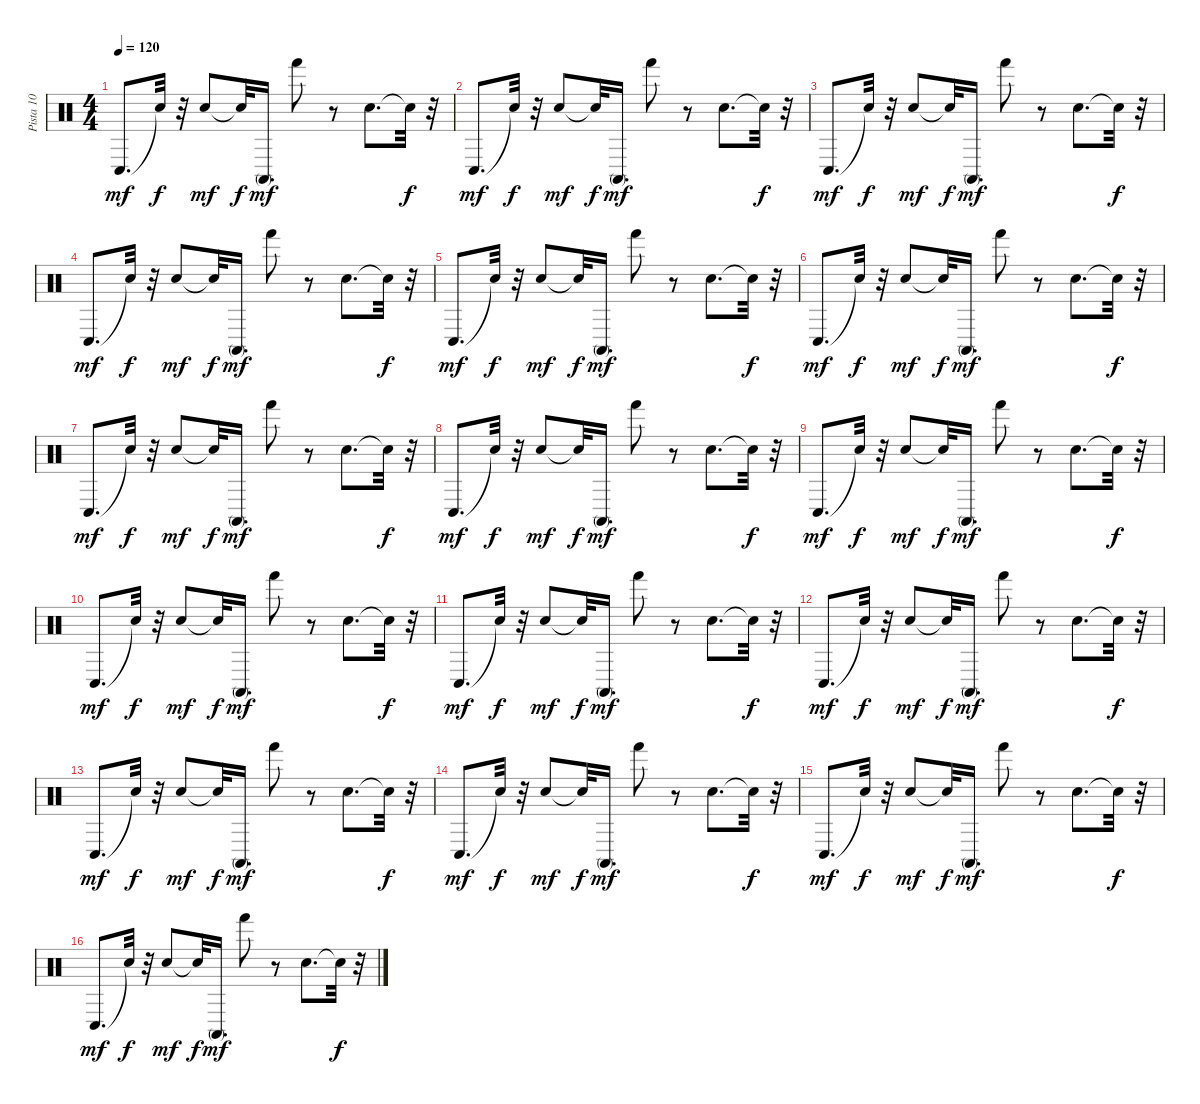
\track ("Pista 10" "Pista 10") {instrument percussion}
\staff {score}
\articulation defaults
\ts (4 4)
\tempo 120
\clef neutral
\ks c "Conga low (hit)".8{d dy mf} "Snare (hit)"{t}.32{dy f}
r.32 "Hand Clap (hit)".8{dy mf} "Snare (hit)"{t}.32{dy f} "Conga high (mute)".16{d dy mf} "Hand (hit)".8 r.8 "Hand Clap (hit)".8{d} "Snare (hit)"{t}.32{dy f} r.32 |
"Conga low (hit)".8{d dy mf} "Snare (hit)"{t}.32{dy f} r.32 "Hand Clap (hit)".8{dy mf} "Snare (hit)"{t}.32{dy f} "Conga high (mute)".16{d dy mf} "Hand (hit)".8 r.8 "Hand Clap (hit)".8{d} "Snare (hit)"{t}.32{dy f} r.32 |
"Conga low (hit)".8{d dy mf} "Snare (hit)"{t}.32{dy f} r.32 "Hand Clap (hit)".8{dy mf} "Snare (hit)"{t}.32{dy f} "Conga high (mute)".16{d dy mf} "Hand (hit)".8 r.8 "Hand Clap (hit)".8{d} "Snare (hit)"{t}.32{dy f} r.32 |
"Conga low (hit)".8{d dy mf} "Snare (hit)"{t}.32{dy f} r.32 "Hand Clap (hit)".8{dy mf} "Snare (hit)"{t}.32{dy f} "Conga high (mute)".16{d dy mf} "Hand (hit)".8 r.8 "Hand Clap (hit)".8{d} "Snare (hit)"{t}.32{dy f} r.32 |
"Conga low (hit)".8{d dy mf} "Snare (hit)"{t}.32{dy f} r.32 "Hand Clap (hit)".8{dy mf} "Snare (hit)"{t}.32{dy f} "Conga high (mute)".16{d dy mf} "Hand (hit)".8 r.8 "Hand Clap (hit)".8{d} "Snare (hit)"{t}.32{dy f} r.32 |
"Conga low (hit)".8{d dy mf} "Snare (hit)"{t}.32{dy f} r.32 "Hand Clap (hit)".8{dy mf} "Snare (hit)"{t}.32{dy f} "Conga high (mute)".16{d dy mf} "Hand (hit)".8 r.8 "Hand Clap (hit)".8{d} "Snare (hit)"{t}.32{dy f} r.32 |
"Conga low (hit)".8{d dy mf} "Snare (hit)"{t}.32{dy f} r.32 "Hand Clap (hit)".8{dy mf} "Snare (hit)"{t}.32{dy f} "Conga high (mute)".16{d dy mf} "Hand (hit)".8 r.8 "Hand Clap (hit)".8{d} "Snare (hit)"{t}.32{dy f} r.32 |
"Conga low (hit)".8{d dy mf} "Snare (hit)"{t}.32{dy f} r.32 "Hand Clap (hit)".8{dy mf} "Snare (hit)"{t}.32{dy f} "Conga high (mute)".16{d dy mf} "Hand (hit)".8 r.8 "Hand Clap (hit)".8{d} "Snare (hit)"{t}.32{dy f} r.32 |
"Conga low (hit)".8{d dy mf} "Snare (hit)"{t}.32{dy f} r.32 "Hand Clap (hit)".8{dy mf} "Snare (hit)"{t}.32{dy f} "Conga high (mute)".16{d dy mf} "Hand (hit)".8 r.8 "Hand Clap (hit)".8{d} "Snare (hit)"{t}.32{dy f} r.32 |
"Conga low (hit)".8{d dy mf} "Snare (hit)"{t}.32{dy f} r.32 "Hand Clap (hit)".8{dy mf} "Snare (hit)"{t}.32{dy f} "Conga high (mute)".16{d dy mf} "Hand (hit)".8 r.8 "Hand Clap (hit)".8{d} "Snare (hit)"{t}.32{dy f} r.32 |
"Conga low (hit)".8{d dy mf volume 16} "Snare (hit)"{t}.32{dy f} r.32 "Hand Clap (hit)".8{dy mf volume 16} "Snare (hit)"{t}.32{dy f} "Conga high (mute)".16{d dy mf volume 15} "Hand (hit)".8{volume 15} r.8 "Hand Clap (hit)".8{d volume 14} "Snare (hit)"{t}.32{dy f} r.32 |
"Conga low (hit)".8{d dy mf volume 14} "Snare (hit)"{t}.32{dy f} r.32 "Hand Clap (hit)".8{dy mf volume 14} "Snare (hit)"{t}.32{dy f} "Conga high (mute)".16{d dy mf volume 13} "Hand (hit)".8{volume 13} r.8 "Hand Clap (hit)".8{d volume 12} "Snare (hit)"{t}.32{dy f} r.32 |
"Conga low (hit)".8{d dy mf volume 12} "Snare (hit)"{t}.32{dy f} r.32 "Hand Clap (hit)".8{dy mf volume 12} "Snare (hit)"{t}.32{dy f} "Conga high (mute)".16{d dy mf volume 11} "Hand (hit)".8{volume 11} r.8 "Hand Clap (hit)".8{d volume 10} "Snare (hit)"{t}.32{dy f} r.32 |
"Conga low (hit)".8{d dy mf volume 10} "Snare (hit)"{t}.32{dy f} r.32 "Hand Clap (hit)".8{dy mf volume 10} "Snare (hit)"{t}.32{dy f} "Conga high (mute)".16{d dy mf volume 9} "Hand (hit)".8{volume 9} r.8 "Hand Clap (hit)".8{d volume 8} "Snare (hit)"{t}.32{dy f} r.32 |
"Conga low (hit)".8{d dy mf volume 8} "Snare (hit)"{t}.32{dy f} r.32 "Hand Clap (hit)".8{dy mf volume 8} "Snare (hit)"{t}.32{dy f} "Conga high (mute)".16{d dy mf volume 7} "Hand (hit)".8{volume 7} r.8 "Hand Clap (hit)".8{d volume 6} "Snare (hit)"{t}.32{dy f} r.32 |
"Conga low (hit)".8{d dy mf volume 6} "Snare (hit)"{t}.32{dy f} r.32 "Hand Clap (hit)".8{dy mf volume 6} "Snare (hit)"{t}.32{dy f} "Conga high (mute)".16{d dy mf volume 5} "Hand (hit)".8{volume 5} r.8 "Hand Clap (hit)".8{d volume 4} "Snare (hit)"{t}.32{dy f} r.32
